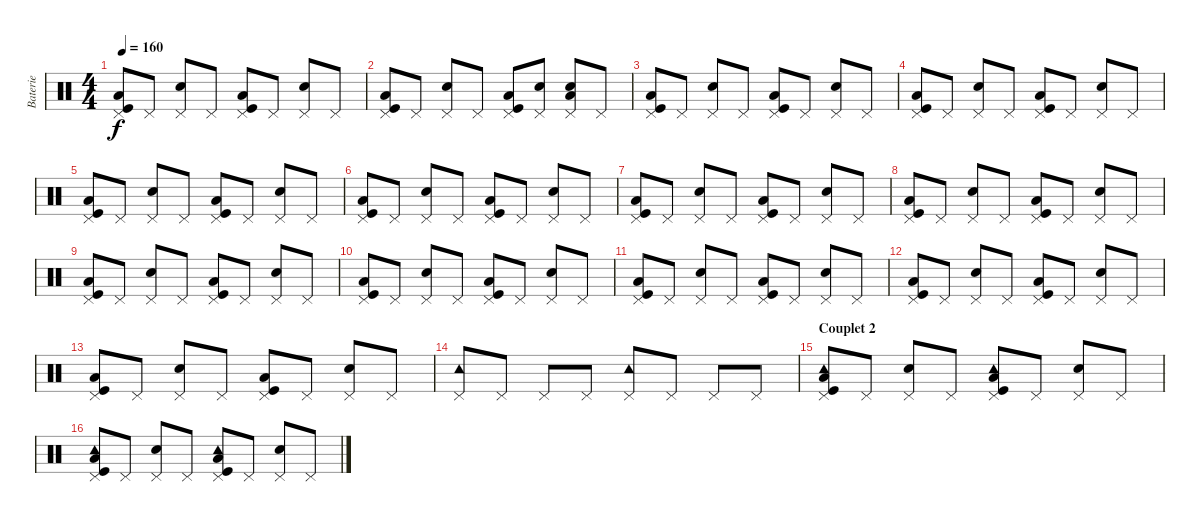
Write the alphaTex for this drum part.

\track ("Baterie" "Baterie") {instrument percussion}
\staff {score}
\articulation defaults
\ts (4 4)
\tempo 160
\clef neutral
\ks c
("Pedal Hi-Hat (hit)" "Low Floor Tom (hit)" "Kick (hit)").8{dy f} "Pedal Hi-Hat (hit)".8 ("Pedal Hi-Hat (hit)" "Electric Snare (hit)").8 "Pedal Hi-Hat (hit)".8 ("Pedal Hi-Hat (hit)" "Low Floor Tom (hit)" "Kick (hit)").8 "Pedal Hi-Hat (hit)".8 ("Pedal Hi-Hat (hit)" "Electric Snare (hit)").8 "Pedal Hi-Hat (hit)".8 |
("Pedal Hi-Hat (hit)" "Low Floor Tom (hit)" "Kick (hit)").8 "Pedal Hi-Hat (hit)".8 ("Pedal Hi-Hat (hit)" "Electric Snare (hit)").8 "Pedal Hi-Hat (hit)".8 ("Pedal Hi-Hat (hit)" "Low Floor Tom (hit)" "Kick (hit)").8 ("Pedal Hi-Hat (hit)" "Electric Snare (hit)").8 ("Pedal Hi-Hat (hit)" "Electric Snare (hit)" "Low Floor Tom (hit)").8 "Pedal Hi-Hat (hit)".8 |
("Pedal Hi-Hat (hit)" "Low Floor Tom (hit)" "Kick (hit)").8 "Pedal Hi-Hat (hit)".8 ("Pedal Hi-Hat (hit)" "Electric Snare (hit)").8 "Pedal Hi-Hat (hit)".8 ("Pedal Hi-Hat (hit)" "Low Floor Tom (hit)" "Kick (hit)").8 "Pedal Hi-Hat (hit)".8 ("Pedal Hi-Hat (hit)" "Electric Snare (hit)").8 "Pedal Hi-Hat (hit)".8 |
("Pedal Hi-Hat (hit)" "Low Floor Tom (hit)" "Kick (hit)").8 "Pedal Hi-Hat (hit)".8 ("Pedal Hi-Hat (hit)" "Electric Snare (hit)").8 "Pedal Hi-Hat (hit)".8 ("Pedal Hi-Hat (hit)" "Low Floor Tom (hit)" "Kick (hit)").8 "Pedal Hi-Hat (hit)".8 ("Pedal Hi-Hat (hit)" "Electric Snare (hit)").8 "Pedal Hi-Hat (hit)".8 |
("Pedal Hi-Hat (hit)" "Low Floor Tom (hit)" "Kick (hit)").8 "Pedal Hi-Hat (hit)".8 ("Pedal Hi-Hat (hit)" "Electric Snare (hit)").8 "Pedal Hi-Hat (hit)".8 ("Pedal Hi-Hat (hit)" "Low Floor Tom (hit)" "Kick (hit)").8 "Pedal Hi-Hat (hit)".8 ("Pedal Hi-Hat (hit)" "Electric Snare (hit)").8 "Pedal Hi-Hat (hit)".8 |
("Pedal Hi-Hat (hit)" "Low Floor Tom (hit)" "Kick (hit)").8 "Pedal Hi-Hat (hit)".8 ("Pedal Hi-Hat (hit)" "Electric Snare (hit)").8 "Pedal Hi-Hat (hit)".8 ("Pedal Hi-Hat (hit)" "Low Floor Tom (hit)" "Kick (hit)").8 "Pedal Hi-Hat (hit)".8 ("Pedal Hi-Hat (hit)" "Electric Snare (hit)").8 "Pedal Hi-Hat (hit)".8 |
("Pedal Hi-Hat (hit)" "Low Floor Tom (hit)" "Kick (hit)").8 "Pedal Hi-Hat (hit)".8 ("Pedal Hi-Hat (hit)" "Electric Snare (hit)").8 "Pedal Hi-Hat (hit)".8 ("Pedal Hi-Hat (hit)" "Low Floor Tom (hit)" "Kick (hit)").8 "Pedal Hi-Hat (hit)".8 ("Pedal Hi-Hat (hit)" "Electric Snare (hit)").8 "Pedal Hi-Hat (hit)".8 |
("Pedal Hi-Hat (hit)" "Low Floor Tom (hit)" "Kick (hit)").8 "Pedal Hi-Hat (hit)".8 ("Pedal Hi-Hat (hit)" "Electric Snare (hit)").8 "Pedal Hi-Hat (hit)".8 ("Pedal Hi-Hat (hit)" "Low Floor Tom (hit)" "Kick (hit)").8 "Pedal Hi-Hat (hit)".8 ("Pedal Hi-Hat (hit)" "Electric Snare (hit)").8 "Pedal Hi-Hat (hit)".8 |
("Pedal Hi-Hat (hit)" "Low Floor Tom (hit)" "Kick (hit)").8 "Pedal Hi-Hat (hit)".8 ("Pedal Hi-Hat (hit)" "Electric Snare (hit)").8 "Pedal Hi-Hat (hit)".8 ("Pedal Hi-Hat (hit)" "Low Floor Tom (hit)" "Kick (hit)").8 "Pedal Hi-Hat (hit)".8 ("Pedal Hi-Hat (hit)" "Electric Snare (hit)").8 "Pedal Hi-Hat (hit)".8 |
("Pedal Hi-Hat (hit)" "Low Floor Tom (hit)" "Kick (hit)").8 "Pedal Hi-Hat (hit)".8 ("Pedal Hi-Hat (hit)" "Electric Snare (hit)").8 "Pedal Hi-Hat (hit)".8 ("Pedal Hi-Hat (hit)" "Low Floor Tom (hit)" "Kick (hit)").8 "Pedal Hi-Hat (hit)".8 ("Pedal Hi-Hat (hit)" "Electric Snare (hit)").8 "Pedal Hi-Hat (hit)".8 |
("Pedal Hi-Hat (hit)" "Low Floor Tom (hit)" "Kick (hit)").8 "Pedal Hi-Hat (hit)".8 ("Pedal Hi-Hat (hit)" "Electric Snare (hit)").8 "Pedal Hi-Hat (hit)".8 ("Pedal Hi-Hat (hit)" "Low Floor Tom (hit)" "Kick (hit)").8 "Pedal Hi-Hat (hit)".8 ("Pedal Hi-Hat (hit)" "Electric Snare (hit)").8 "Pedal Hi-Hat (hit)".8 |
("Pedal Hi-Hat (hit)" "Low Floor Tom (hit)" "Kick (hit)").8 "Pedal Hi-Hat (hit)".8 ("Pedal Hi-Hat (hit)" "Electric Snare (hit)").8 "Pedal Hi-Hat (hit)".8 ("Pedal Hi-Hat (hit)" "Low Floor Tom (hit)" "Kick (hit)").8 "Pedal Hi-Hat (hit)".8 ("Pedal Hi-Hat (hit)" "Electric Snare (hit)").8 "Pedal Hi-Hat (hit)".8 |
("Pedal Hi-Hat (hit)" "Low Floor Tom (hit)" "Kick (hit)").8 "Pedal Hi-Hat (hit)".8 ("Pedal Hi-Hat (hit)" "Electric Snare (hit)").8 "Pedal Hi-Hat (hit)".8 ("Pedal Hi-Hat (hit)" "Low Floor Tom (hit)" "Kick (hit)").8 "Pedal Hi-Hat (hit)".8 ("Pedal Hi-Hat (hit)" "Electric Snare (hit)").8 "Pedal Hi-Hat (hit)".8 |
("Pedal Hi-Hat (hit)" "Tambourine (hit)").8 "Pedal Hi-Hat (hit)".8 "Pedal Hi-Hat (hit)".8 "Pedal Hi-Hat (hit)".8 ("Pedal Hi-Hat (hit)" "Tambourine (hit)").8 "Pedal Hi-Hat (hit)".8 "Pedal Hi-Hat (hit)".8 "Pedal Hi-Hat (hit)".8 |
\section ("" "Couplet 2")
("Pedal Hi-Hat (hit)" "Tambourine (hit)" "Low Floor Tom (hit)" "Kick (hit)").8 "Pedal Hi-Hat (hit)".8 ("Pedal Hi-Hat (hit)" "Electric Snare (hit)").8 "Pedal Hi-Hat (hit)".8 ("Pedal Hi-Hat (hit)" "Tambourine (hit)" "Low Floor Tom (hit)" "Kick (hit)").8 "Pedal Hi-Hat (hit)".8 ("Pedal Hi-Hat (hit)" "Electric Snare (hit)").8 "Pedal Hi-Hat (hit)".8 |
("Pedal Hi-Hat (hit)" "Tambourine (hit)" "Low Floor Tom (hit)" "Kick (hit)").8 "Pedal Hi-Hat (hit)".8 ("Pedal Hi-Hat (hit)" "Electric Snare (hit)").8 "Pedal Hi-Hat (hit)".8 ("Pedal Hi-Hat (hit)" "Tambourine (hit)" "Low Floor Tom (hit)" "Kick (hit)").8 "Pedal Hi-Hat (hit)".8 ("Pedal Hi-Hat (hit)" "Electric Snare (hit)").8 "Pedal Hi-Hat (hit)".8
